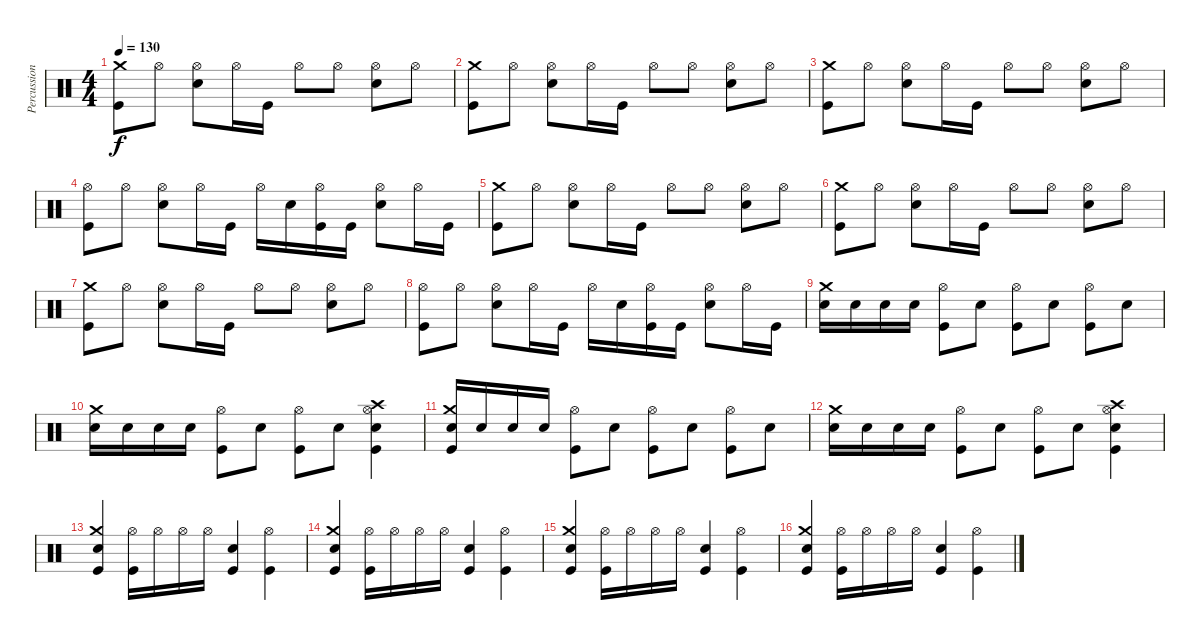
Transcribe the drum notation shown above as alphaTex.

\track ("Percussion" "Percussion") {instrument percussion}
\staff {score}
\articulation defaults
\ts (4 4)
\tempo 130
\clef neutral
\ks c
("Kick (hit)" "Crash medium (hit)").8{dy f} "Hi-Hat (open)".8 ("Hi-Hat (open)" "Electric Snare (hit)").8 "Hi-Hat (open)".16 "Kick (hit)".16 "Hi-Hat (open)".8 "Hi-Hat (open)".8 ("Hi-Hat (open)" "Electric Snare (hit)").8 "Hi-Hat (open)".8 |
("Kick (hit)" "Crash medium (hit)").8 "Hi-Hat (open)".8 ("Hi-Hat (open)" "Electric Snare (hit)").8 "Hi-Hat (open)".16 "Kick (hit)".16 "Hi-Hat (open)".8 "Hi-Hat (open)".8 ("Hi-Hat (open)" "Electric Snare (hit)").8 "Hi-Hat (open)".8 |
("Kick (hit)" "Crash medium (hit)").8 "Hi-Hat (open)".8 ("Hi-Hat (open)" "Electric Snare (hit)").8 "Hi-Hat (open)".16 "Kick (hit)".16 "Hi-Hat (open)".8 "Hi-Hat (open)".8 ("Hi-Hat (open)" "Electric Snare (hit)").8 "Hi-Hat (open)".8 |
("Kick (hit)" "Hi-Hat (open)").8 "Hi-Hat (open)".8 ("Hi-Hat (open)" "Electric Snare (hit)").8 "Hi-Hat (open)".16 "Kick (hit)".16 "Hi-Hat (open)".16 "Electric Snare (hit)".16 ("Kick (hit)" "Hi-Hat (open)").16 "Kick (hit)".16 ("Hi-Hat (open)" "Electric Snare (hit)").8 "Hi-Hat (open)".16 "Kick (hit)".16 |
("Kick (hit)" "Crash medium (hit)").8 "Hi-Hat (open)".8 ("Hi-Hat (open)" "Electric Snare (hit)").8 "Hi-Hat (open)".16 "Kick (hit)".16 "Hi-Hat (open)".8 "Hi-Hat (open)".8 ("Hi-Hat (open)" "Electric Snare (hit)").8 "Hi-Hat (open)".8 |
("Kick (hit)" "Crash medium (hit)").8 "Hi-Hat (open)".8 ("Hi-Hat (open)" "Electric Snare (hit)").8 "Hi-Hat (open)".16 "Kick (hit)".16 "Hi-Hat (open)".8 "Hi-Hat (open)".8 ("Hi-Hat (open)" "Electric Snare (hit)").8 "Hi-Hat (open)".8 |
("Kick (hit)" "Crash medium (hit)").8 "Hi-Hat (open)".8 ("Hi-Hat (open)" "Electric Snare (hit)").8 "Hi-Hat (open)".16 "Kick (hit)".16 "Hi-Hat (open)".8 "Hi-Hat (open)".8 ("Hi-Hat (open)" "Electric Snare (hit)").8 "Hi-Hat (open)".8 |
("Kick (hit)" "Hi-Hat (open)").8 "Hi-Hat (open)".8 ("Hi-Hat (open)" "Electric Snare (hit)").8 "Hi-Hat (open)".16 "Kick (hit)".16 "Hi-Hat (open)".16 "Electric Snare (hit)".16 ("Kick (hit)" "Hi-Hat (open)").16 "Kick (hit)".16 ("Hi-Hat (open)" "Electric Snare (hit)").8 "Hi-Hat (open)".16 "Kick (hit)".16 |
("Crash medium (hit)" "Electric Snare (hit)").16 "Electric Snare (hit)".16 "Electric Snare (hit)".16 "Electric Snare (hit)".16 ("Hi-Hat (open)" "Kick (hit)").8 "Snare (hit)"{x}.8 ("Hi-Hat (open)" "Kick (hit)").8 "Snare (hit)"{x}.8 ("Hi-Hat (open)" "Kick (hit)").8 "Snare (hit)"{x}.8 |
("Crash medium (hit)" "Electric Snare (hit)").16 "Electric Snare (hit)".16 "Electric Snare (hit)".16 "Electric Snare (hit)".16 ("Hi-Hat (open)" "Kick (hit)").8 "Snare (hit)"{x}.8 ("Hi-Hat (open)" "Kick (hit)").8 "Snare (hit)"{x}.8 ("Crash high (hit)" "Hi-Hat (open)" "Electric Snare (hit)" "Kick (hit)").4 |
("Crash medium (hit)" "Electric Snare (hit)" "Kick (hit)").16 "Electric Snare (hit)".16 "Electric Snare (hit)".16 "Electric Snare (hit)".16 ("Hi-Hat (open)" "Kick (hit)").8 "Snare (hit)"{x}.8 ("Hi-Hat (open)" "Kick (hit)").8 "Snare (hit)"{x}.8 ("Hi-Hat (open)" "Kick (hit)").8 "Snare (hit)"{x}.8 |
("Crash medium (hit)" "Electric Snare (hit)").16 "Electric Snare (hit)".16 "Electric Snare (hit)".16 "Electric Snare (hit)".16 ("Hi-Hat (open)" "Kick (hit)").8 "Snare (hit)"{x}.8 ("Hi-Hat (open)" "Kick (hit)").8 "Snare (hit)"{x}.8 ("Crash high (hit)" "Hi-Hat (open)" "Electric Snare (hit)" "Kick (hit)").4 |
("Electric Snare (hit)" "Crash medium (hit)" "Kick (hit)").4 ("Hi-Hat (open)" "Kick (hit)").16 "Hi-Hat (open)".16 "Hi-Hat (open)".16 "Hi-Hat (open)".16 ("Electric Snare (hit)" "Kick (hit)").4 ("Hi-Hat (open)" "Kick (hit)").4 |
("Electric Snare (hit)" "Crash medium (hit)" "Kick (hit)").4 ("Hi-Hat (open)" "Kick (hit)").16 "Hi-Hat (open)".16 "Hi-Hat (open)".16 "Hi-Hat (open)".16 ("Electric Snare (hit)" "Kick (hit)").4 ("Hi-Hat (open)" "Kick (hit)").4 |
("Electric Snare (hit)" "Crash medium (hit)" "Kick (hit)").4 ("Hi-Hat (open)" "Kick (hit)").16 "Hi-Hat (open)".16 "Hi-Hat (open)".16 "Hi-Hat (open)".16 ("Electric Snare (hit)" "Kick (hit)").4 ("Hi-Hat (open)" "Kick (hit)").4 |
("Electric Snare (hit)" "Crash medium (hit)" "Kick (hit)").4 ("Hi-Hat (open)" "Kick (hit)").16 "Hi-Hat (open)".16 "Hi-Hat (open)".16 "Hi-Hat (open)".16 ("Electric Snare (hit)" "Kick (hit)").4 ("Hi-Hat (open)" "Kick (hit)").4
